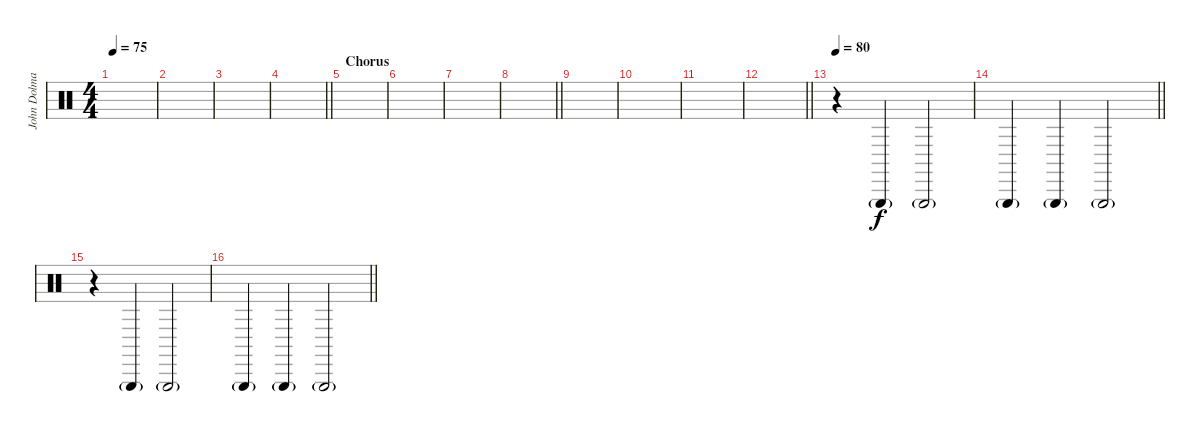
\track ("John Dolmayan (extra)" "John Dolma") {instrument percussion}
\staff
\articulation defaults
\ts (4 4)
\tempo 75
\clef neutral
\ks c
|
|
|
\barLineRight lightlight
|
\section ("" "Chorus")
|
|
|
\barLineRight lightlight
|
|
|
|
\barLineRight lightlight
|
\tempo 80
r.4 "Triangle (hit)"{g}.4 "Triangle (hit)"{g}.2 |
\barLineRight lightlight "Triangle (hit)"{g}.4 "Triangle (hit)"{g}.4 "Triangle (hit)"{g}.2
|
r.4 "Triangle (hit)"{g}.4 "Triangle (hit)"{g}.2 |
\barLineRight lightlight "Triangle (hit)"{g}.4 "Triangle (hit)"{g}.4 "Triangle (hit)"{g}.2
